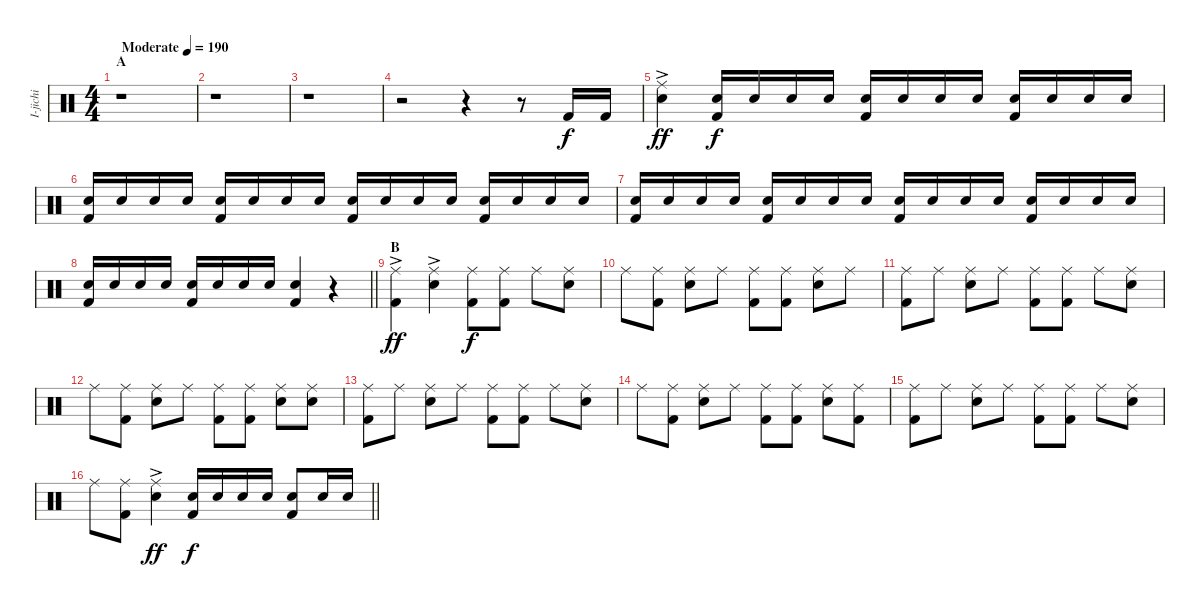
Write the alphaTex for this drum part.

\track ("I-jichi" "I-jichi") {instrument percussion}
\staff {score}
\articulation defaults
\ts (4 4)
\section ("" "A")
\tempo (190 "Moderate")
\clef neutral
\ks c
r.1{dy f} |
r.1 |
r.1 |
r.2 r.4 r.8 "Kick (hit) 2".16 "Kick (hit) 2".16 |
("Ride (middle)"{ac} "Snare (hit) 2").4{dy ff} ("Snare (hit) 2" "Kick (hit) 2").16{dy f} "Snare (hit) 2".16 "Snare (hit) 2".16 "Snare (hit) 2".16 ("Snare (hit) 2" "Kick (hit) 2").16 "Snare (hit) 2".16 "Snare (hit) 2".16 "Snare (hit) 2".16 ("Snare (hit) 2" "Kick (hit) 2").16 "Snare (hit) 2".16 "Snare (hit) 2".16 "Snare (hit) 2".16 |
("Snare (hit) 2" "Kick (hit) 2").16 "Snare (hit) 2".16 "Snare (hit) 2".16 "Snare (hit) 2".16 ("Snare (hit) 2" "Kick (hit) 2").16 "Snare (hit) 2".16 "Snare (hit) 2".16 "Snare (hit) 2".16 ("Snare (hit) 2" "Kick (hit) 2").16 "Snare (hit) 2".16 "Snare (hit) 2".16 "Snare (hit) 2".16 ("Snare (hit) 2" "Kick (hit) 2").16 "Snare (hit) 2".16 "Snare (hit) 2".16 "Snare (hit) 2".16 |
("Snare (hit) 2" "Kick (hit) 2").16 "Snare (hit) 2".16 "Snare (hit) 2".16 "Snare (hit) 2".16 ("Snare (hit) 2" "Kick (hit) 2").16 "Snare (hit) 2".16 "Snare (hit) 2".16 "Snare (hit) 2".16 ("Snare (hit) 2" "Kick (hit) 2").16 "Snare (hit) 2".16 "Snare (hit) 2".16 "Snare (hit) 2".16 ("Snare (hit) 2" "Kick (hit) 2").16 "Snare (hit) 2".16 "Snare (hit) 2".16 "Snare (hit) 2".16 |
\barLineRight lightlight
("Snare (hit) 2" "Kick (hit) 2").16 "Snare (hit) 2".16 "Snare (hit) 2".16 "Snare (hit) 2".16 ("Snare (hit) 2" "Kick (hit) 2").16 "Snare (hit) 2".16 "Snare (hit) 2".16 "Snare (hit) 2".16 ("Snare (hit) 2" "Kick (hit) 2").4 r.4 |
\section ("" "B")
("Ride (middle)"{ac} "Kick (hit) 2").4{dy ff} ("Ride (middle)"{ac} "Snare (hit) 2").4 ("Ride (middle)" "Kick (hit) 2").8{dy f} ("Ride (middle)" "Kick (hit) 2").8 "Ride (middle)".8 ("Ride (middle)" "Snare (hit) 2").8 |
"Ride (middle)".8 ("Ride (middle)" "Kick (hit) 2").8 ("Ride (middle)" "Snare (hit) 2").8 "Ride (middle)".8 ("Ride (middle)" "Kick (hit) 2").8 ("Ride (middle)" "Kick (hit) 2").8 ("Ride (middle)" "Snare (hit) 2").8 "Ride (middle)".8 |
("Ride (middle)" "Kick (hit) 2").8 "Ride (middle)".8 ("Ride (middle)" "Snare (hit) 2").8 "Ride (middle)".8 ("Ride (middle)" "Kick (hit) 2").8 ("Ride (middle)" "Kick (hit) 2").8 "Ride (middle)".8 ("Ride (middle)" "Snare (hit) 2").8 |
"Ride (middle)".8 ("Ride (middle)" "Kick (hit) 2").8 ("Ride (middle)" "Snare (hit) 2").8 "Ride (middle)".8 ("Ride (middle)" "Kick (hit) 2").8 ("Ride (middle)" "Kick (hit) 2").8 ("Ride (middle)" "Snare (hit) 2").8 ("Ride (middle)" "Snare (hit) 2").8 |
("Ride (middle)" "Kick (hit) 2").8 "Ride (middle)".8 ("Ride (middle)" "Snare (hit) 2").8 "Ride (middle)".8 ("Ride (middle)" "Kick (hit) 2").8 ("Ride (middle)" "Kick (hit) 2").8 "Ride (middle)".8 ("Ride (middle)" "Snare (hit) 2").8 |
"Ride (middle)".8 ("Ride (middle)" "Kick (hit) 2").8 ("Ride (middle)" "Snare (hit) 2").8 "Ride (middle)".8 ("Ride (middle)" "Kick (hit) 2").8 ("Ride (middle)" "Kick (hit) 2").8 ("Ride (middle)" "Snare (hit) 2").8 ("Ride (middle)" "Kick (hit) 2").8 |
("Ride (middle)" "Kick (hit) 2").8 "Ride (middle)".8 ("Ride (middle)" "Snare (hit) 2").8 "Ride (middle)".8 ("Ride (middle)" "Kick (hit) 2").8 ("Ride (middle)" "Kick (hit) 2").8 "Ride (middle)".8 ("Ride (middle)" "Snare (hit) 2").8 |
\barLineRight lightlight "Ride (middle)".8
("Ride (middle)" "Kick (hit) 2").8 ("Ride (middle)"{ac} "Snare (hit) 2").4{dy ff} ("Snare (hit) 2" "Kick (hit) 2").16{dy f} "Snare (hit) 2".16 "Snare (hit) 2".16 "Snare (hit) 2".16 ("Snare (hit) 2" "Kick (hit) 2").8 "Snare (hit) 2".16 "Snare (hit) 2".16
